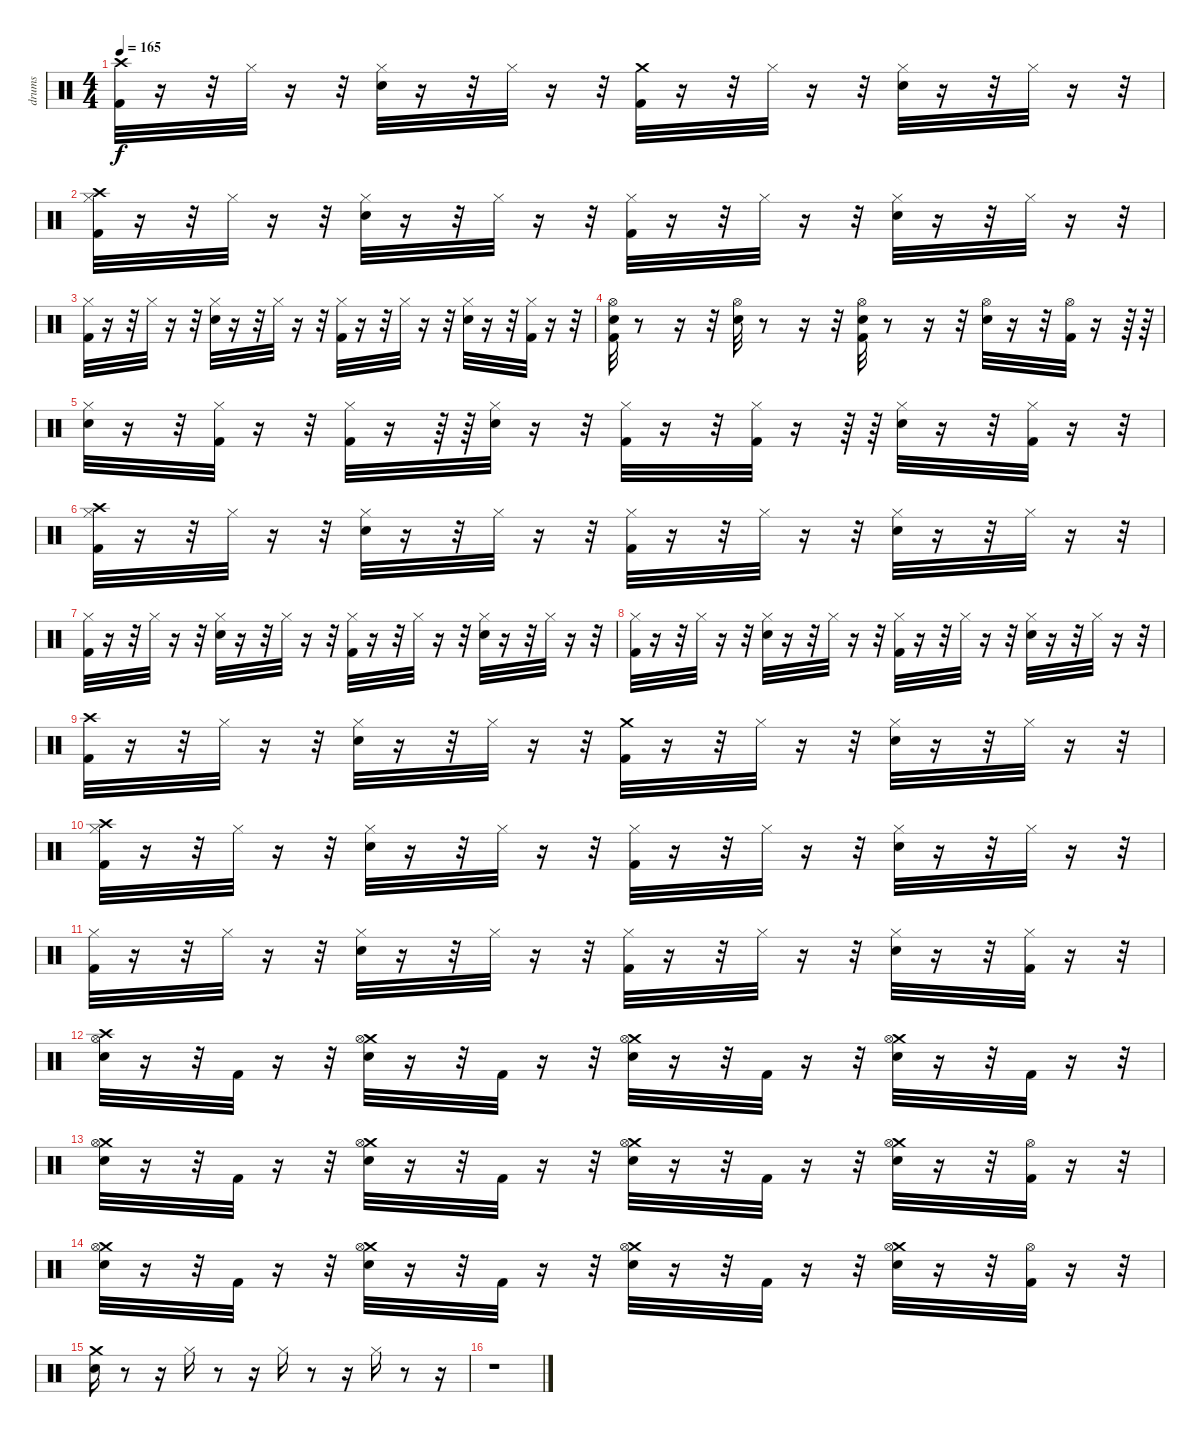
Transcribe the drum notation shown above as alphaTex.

\track ("drums" "drums") {instrument percussion}
\staff {score}
\articulation defaults
\ts (4 4)
\tempo 165
\clef neutral
\ks c
("Crash high (hit)" "Kick (hit) 2").32{dy f} r.16 r.32 "Hi-Hat (closed)".32 r.16 r.32 ("Hi-Hat (closed)" "Electric Snare (hit)").32 r.16 r.32 "Hi-Hat (closed)".32 r.16 r.32 ("Crash medium (hit)" "Kick (hit) 2").32 r.16 r.32 "Hi-Hat (closed)".32 r.16 r.32 ("Hi-Hat (closed)" "Electric Snare (hit)").32 r.16 r.32 "Hi-Hat (closed)".32 r.16 r.32 |
("Crash high (hit)" "Hi-Hat (closed)" "Kick (hit) 2").32 r.16 r.32 "Hi-Hat (closed)".32 r.16 r.32 ("Hi-Hat (closed)" "Electric Snare (hit)").32 r.16 r.32 "Hi-Hat (closed)".32 r.16 r.32 ("Hi-Hat (closed)" "Kick (hit) 2").32 r.16 r.32 "Hi-Hat (closed)".32 r.16 r.32 ("Hi-Hat (closed)" "Electric Snare (hit)").32 r.16 r.32 "Hi-Hat (closed)".32 r.16 r.32 |
("Hi-Hat (closed)" "Kick (hit) 2").32 r.16 r.32 "Hi-Hat (closed)".32 r.16 r.32 ("Hi-Hat (closed)" "Electric Snare (hit)").32 r.16 r.32 "Hi-Hat (closed)".32 r.16 r.32 ("Hi-Hat (closed)" "Kick (hit) 2").32 r.16 r.32 "Hi-Hat (closed)".32 r.16 r.32 ("Hi-Hat (closed)" "Electric Snare (hit)").32 r.16 r.32 ("Kick (hit) 2" "Hi-Hat (closed)").32 r.16 r.32 |
("Electric Snare (hit)" "Hi-Hat (open)" "Kick (hit) 2").32 r.8 r.16 r.32 ("Electric Snare (hit)" "Hi-Hat (open)").32 r.8 r.16 r.32 ("Electric Snare (hit)" "Hi-Hat (open)" "Kick (hit) 2").32 r.8 r.16 r.32 ("Hi-Hat (open)" "Electric Snare (hit)").32 r.16 r.32 ("Kick (hit) 2" "Hi-Hat (open)").32 r.16 r.64 r.64 |
("Hi-Hat (closed)" "Electric Snare (hit)").32 r.16 r.32 ("Kick (hit) 2" "Hi-Hat (closed)").32 r.16 r.32 ("Hi-Hat (closed)" "Kick (hit) 2").32 r.16 r.64 r.64 ("Electric Snare (hit)" "Hi-Hat (closed)").32 r.16 r.32 ("Hi-Hat (closed)" "Kick (hit) 2").32 r.16 r.32 ("Hi-Hat (closed)" "Kick (hit) 2").32 r.16 r.64 r.64 ("Hi-Hat (closed)" "Electric Snare (hit)").32 r.16 r.32 ("Kick (hit) 2" "Hi-Hat (closed)").32 r.16 r.32 |
("Kick (hit) 2" "Hi-Hat (closed)" "Crash high (hit)").32 r.16 r.32 "Hi-Hat (closed)".32 r.16 r.32 ("Hi-Hat (closed)" "Electric Snare (hit)").32 r.16 r.32 "Hi-Hat (closed)".32 r.16 r.32 ("Hi-Hat (closed)" "Kick (hit) 2").32 r.16 r.32 "Hi-Hat (closed)".32 r.16 r.32 ("Hi-Hat (closed)" "Electric Snare (hit)").32 r.16 r.32 "Hi-Hat (closed)".32 r.16 r.32 |
("Hi-Hat (closed)" "Kick (hit) 2").32 r.16 r.32 "Hi-Hat (closed)".32 r.16 r.32 ("Hi-Hat (closed)" "Electric Snare (hit)").32 r.16 r.32 "Hi-Hat (closed)".32 r.16 r.32 ("Hi-Hat (closed)" "Kick (hit) 2").32 r.16 r.32 "Hi-Hat (closed)".32 r.16 r.32 ("Hi-Hat (closed)" "Electric Snare (hit)").32 r.16 r.32 "Hi-Hat (closed)".32 r.16 r.32 |
("Hi-Hat (closed)" "Kick (hit) 2").32 r.16 r.32 "Hi-Hat (closed)".32 r.16 r.32 ("Hi-Hat (closed)" "Electric Snare (hit)").32 r.16 r.32 "Hi-Hat (closed)".32 r.16 r.32 ("Hi-Hat (closed)" "Kick (hit) 2").32 r.16 r.32 "Hi-Hat (closed)".32 r.16 r.32 ("Hi-Hat (closed)" "Electric Snare (hit)").32 r.16 r.32 "Hi-Hat (closed)".32 r.16 r.32 |
("Crash high (hit)" "Kick (hit) 2").32 r.16 r.32 "Hi-Hat (closed)".32 r.16 r.32 ("Hi-Hat (closed)" "Electric Snare (hit)").32 r.16 r.32 "Hi-Hat (closed)".32 r.16 r.32 ("Crash medium (hit)" "Kick (hit) 2").32 r.16 r.32 "Hi-Hat (closed)".32 r.16 r.32 ("Hi-Hat (closed)" "Electric Snare (hit)").32 r.16 r.32 "Hi-Hat (closed)".32 r.16 r.32 |
("Crash high (hit)" "Hi-Hat (closed)" "Kick (hit) 2").32 r.16 r.32 "Hi-Hat (closed)".32 r.16 r.32 ("Hi-Hat (closed)" "Electric Snare (hit)").32 r.16 r.32 "Hi-Hat (closed)".32 r.16 r.32 ("Hi-Hat (closed)" "Kick (hit) 2").32 r.16 r.32 "Hi-Hat (closed)".32 r.16 r.32 ("Hi-Hat (closed)" "Electric Snare (hit)").32 r.16 r.32 "Hi-Hat (closed)".32 r.16 r.32 |
("Hi-Hat (closed)" "Kick (hit) 2").32 r.16 r.32 "Hi-Hat (closed)".32 r.16 r.32 ("Hi-Hat (closed)" "Electric Snare (hit)").32 r.16 r.32 "Hi-Hat (closed)".32 r.16 r.32 ("Hi-Hat (closed)" "Kick (hit) 2").32 r.16 r.32 "Hi-Hat (closed)".32 r.16 r.32 ("Hi-Hat (closed)" "Electric Snare (hit)").32 r.16 r.32 ("Kick (hit) 2" "Hi-Hat (closed)").32 r.16 r.32 |
("Electric Snare (hit)" "Crash high (hit)" "Hi-Hat (open)").32 r.16 r.32 "Kick (hit) 2".32 r.16 r.32 ("Crash medium (hit)" "Hi-Hat (open)" "Electric Snare (hit)").32 r.16 r.32 "Kick (hit) 2".32 r.16 r.32 ("Crash medium (hit)" "Electric Snare (hit)" "Hi-Hat (open)").32 r.16 r.32 "Kick (hit) 2".32 r.16 r.32 ("Crash medium (hit)" "Hi-Hat (open)" "Electric Snare (hit)").32 r.16 r.32 "Kick (hit) 2".32 r.16 r.32 |
("Crash medium (hit)" "Electric Snare (hit)" "Hi-Hat (open)").32 r.16 r.32 "Kick (hit) 2".32 r.16 r.32 ("Crash medium (hit)" "Hi-Hat (open)" "Electric Snare (hit)").32 r.16 r.32 "Kick (hit) 2".32 r.16 r.32 ("Crash medium (hit)" "Electric Snare (hit)" "Hi-Hat (open)").32 r.16 r.32 "Kick (hit) 2".32 r.16 r.32 ("Crash medium (hit)" "Hi-Hat (open)" "Electric Snare (hit)").32 r.16 r.32 ("Kick (hit) 2" "Hi-Hat (open)").32 r.16 r.32 |
("Crash medium (hit)" "Electric Snare (hit)" "Hi-Hat (open)").32 r.16 r.32 "Kick (hit) 2".32 r.16 r.32 ("Crash medium (hit)" "Hi-Hat (open)" "Electric Snare (hit)").32 r.16 r.32 "Kick (hit) 2".32 r.16 r.32 ("Crash medium (hit)" "Electric Snare (hit)" "Hi-Hat (open)").32 r.16 r.32 "Kick (hit) 2".32 r.16 r.32 ("Crash medium (hit)" "Hi-Hat (open)" "Electric Snare (hit)").32 r.16 r.32 ("Kick (hit) 2" "Hi-Hat (open)").32 r.16 r.32 |
("Crash medium (hit)" "Snare (hit) 2").16 r.8 r.16 "Hi-Hat (closed)".16 r.8 r.16 "Hi-Hat (closed)".16 r.8 r.16 "Hi-Hat (closed)".16 r.8 r.16 |
r.1
